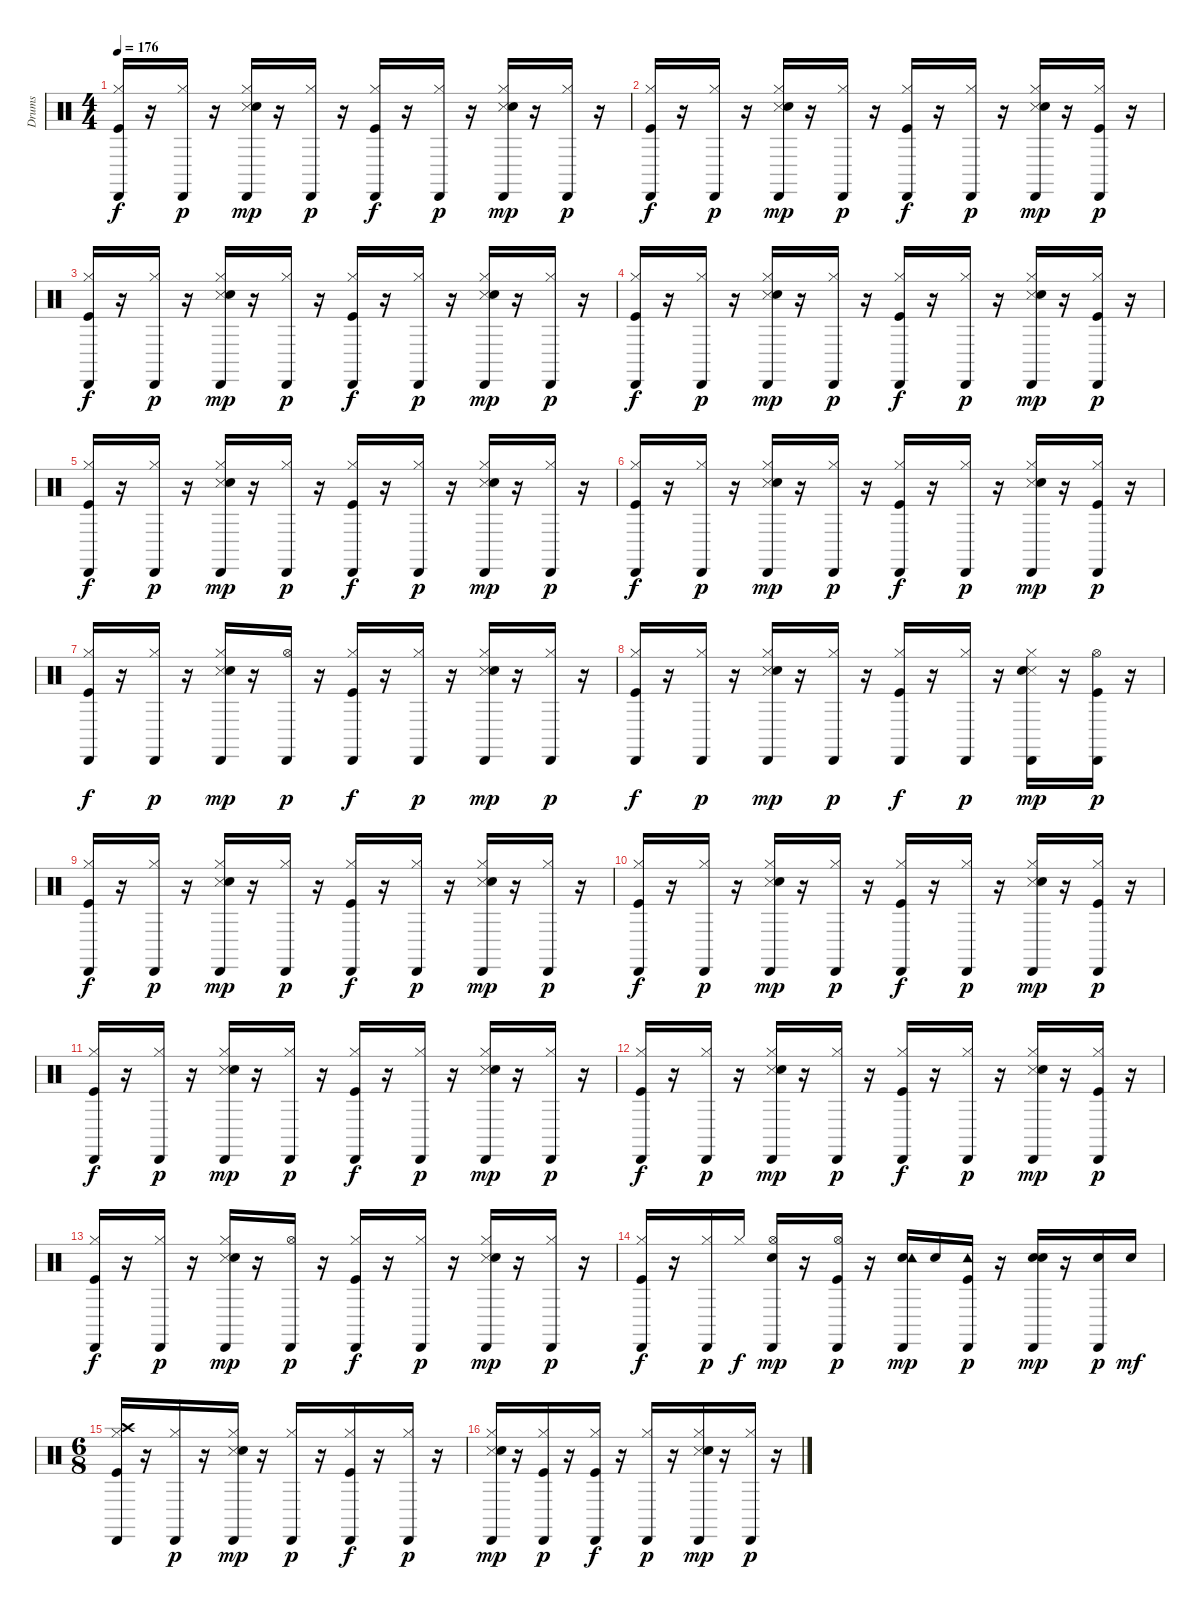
\track ("Drums" "Drums") {instrument percussion}
\staff {score}
\articulation defaults
\ts (4 4)
\tempo 176
\clef neutral
\ks c
("Kick (hit)" "Hi-Hat (closed)" "Cabasa (hit)").16{dy f} r.16 ("Hi-Hat (closed)" "Cabasa (hit)").16{dy p} r.16 ("Hi-Hat (closed)" "Snare (side stick) 3" "Hand Clap (hit)" "Cabasa (hit)").16{dy mp} r.16 ("Hi-Hat (closed)" "Cabasa (hit)").16{dy p} r.16 ("Kick (hit)" "Hi-Hat (closed)" "Cabasa (hit)").16{dy f} r.16 ("Hi-Hat (closed)" "Cabasa (hit)").16{dy p} r.16 ("Hi-Hat (closed)" "Snare (side stick) 3" "Hand Clap (hit)" "Cabasa (hit)").16{dy mp} r.16 ("Hi-Hat (closed)" "Cabasa (hit)").16{dy p} r.16 |
("Kick (hit)" "Hi-Hat (closed)" "Cabasa (hit)").16{dy f} r.16 ("Hi-Hat (closed)" "Cabasa (hit)").16{dy p} r.16 ("Hi-Hat (closed)" "Snare (side stick) 3" "Hand Clap (hit)" "Cabasa (hit)").16{dy mp} r.16 ("Hi-Hat (closed)" "Cabasa (hit)").16{dy p} r.16 ("Kick (hit)" "Hi-Hat (closed)" "Cabasa (hit)").16{dy f} r.16 ("Hi-Hat (closed)" "Cabasa (hit)").16{dy p} r.16 ("Hi-Hat (closed)" "Snare (side stick) 3" "Hand Clap (hit)" "Cabasa (hit)").16{dy mp} r.16 ("Kick (hit)" "Hi-Hat (closed)" "Cabasa (hit)").16{dy p} r.16 |
("Kick (hit)" "Hi-Hat (closed)" "Cabasa (hit)").16{dy f} r.16 ("Hi-Hat (closed)" "Cabasa (hit)").16{dy p} r.16 ("Hi-Hat (closed)" "Snare (side stick) 3" "Hand Clap (hit)" "Cabasa (hit)").16{dy mp} r.16 ("Hi-Hat (closed)" "Cabasa (hit)").16{dy p} r.16 ("Kick (hit)" "Hi-Hat (closed)" "Cabasa (hit)").16{dy f} r.16 ("Hi-Hat (closed)" "Cabasa (hit)").16{dy p} r.16 ("Hi-Hat (closed)" "Snare (side stick) 3" "Hand Clap (hit)" "Cabasa (hit)").16{dy mp} r.16 ("Hi-Hat (closed)" "Cabasa (hit)").16{dy p} r.16 |
("Kick (hit)" "Hi-Hat (closed)" "Cabasa (hit)").16{dy f} r.16 ("Hi-Hat (closed)" "Cabasa (hit)").16{dy p} r.16 ("Hi-Hat (closed)" "Snare (side stick) 3" "Hand Clap (hit)" "Cabasa (hit)").16{dy mp} r.16 ("Hi-Hat (closed)" "Cabasa (hit)").16{dy p} r.16 ("Kick (hit)" "Hi-Hat (closed)" "Cabasa (hit)").16{dy f} r.16 ("Hi-Hat (closed)" "Cabasa (hit)").16{dy p} r.16 ("Hi-Hat (closed)" "Snare (side stick) 3" "Hand Clap (hit)" "Cabasa (hit)").16{dy mp} r.16 ("Kick (hit)" "Hi-Hat (closed)" "Cabasa (hit)").16{dy p} r.16 |
("Kick (hit)" "Hi-Hat (closed)" "Cabasa (hit)").16{dy f} r.16 ("Hi-Hat (closed)" "Cabasa (hit)").16{dy p} r.16 ("Hi-Hat (closed)" "Snare (side stick) 3" "Hand Clap (hit)" "Cabasa (hit)").16{dy mp} r.16 ("Hi-Hat (closed)" "Cabasa (hit)").16{dy p} r.16 ("Kick (hit)" "Hi-Hat (closed)" "Cabasa (hit)").16{dy f} r.16 ("Hi-Hat (closed)" "Cabasa (hit)").16{dy p} r.16 ("Hi-Hat (closed)" "Snare (side stick) 3" "Hand Clap (hit)" "Cabasa (hit)").16{dy mp} r.16 ("Hi-Hat (closed)" "Cabasa (hit)").16{dy p} r.16 |
("Kick (hit)" "Hi-Hat (closed)" "Cabasa (hit)").16{dy f} r.16 ("Hi-Hat (closed)" "Cabasa (hit)").16{dy p} r.16 ("Hi-Hat (closed)" "Snare (side stick) 3" "Hand Clap (hit)" "Cabasa (hit)").16{dy mp} r.16 ("Hi-Hat (closed)" "Cabasa (hit)").16{dy p} r.16 ("Kick (hit)" "Hi-Hat (closed)" "Cabasa (hit)").16{dy f} r.16 ("Hi-Hat (closed)" "Cabasa (hit)").16{dy p} r.16 ("Hi-Hat (closed)" "Snare (side stick) 3" "Hand Clap (hit)" "Cabasa (hit)").16{dy mp} r.16 ("Kick (hit)" "Hi-Hat (closed)" "Cabasa (hit)").16{dy p} r.16 |
("Kick (hit)" "Hi-Hat (closed)" "Cabasa (hit)").16{dy f} r.16 ("Hi-Hat (closed)" "Cabasa (hit)").16{dy p} r.16 ("Hi-Hat (closed)" "Snare (side stick) 3" "Hand Clap (hit)" "Cabasa (hit)").16{dy mp} r.16 ("Hi-Hat (open)" "Cabasa (hit)").16{dy p} r.16 ("Kick (hit)" "Hi-Hat (closed)" "Cabasa (hit)").16{dy f} r.16 ("Hi-Hat (closed)" "Cabasa (hit)").16{dy p} r.16 ("Hi-Hat (closed)" "Snare (side stick) 3" "Hand Clap (hit)" "Cabasa (hit)").16{dy mp} r.16 ("Hi-Hat (closed)" "Cabasa (hit)").16{dy p} r.16 |
("Kick (hit)" "Hi-Hat (closed)" "Cabasa (hit)").16{dy f} r.16 ("Hi-Hat (closed)" "Cabasa (hit)").16{dy p} r.16 ("Hi-Hat (closed)" "Snare (side stick) 3" "Hand Clap (hit)" "Cabasa (hit)").16{dy mp} r.16 ("Hi-Hat (closed)" "Cabasa (hit)").16{dy p} r.16 ("Kick (hit)" "Hi-Hat (closed)" "Cabasa (hit)").16{dy f} r.16 ("Hi-Hat (closed)" "Cabasa (hit)").16{dy p} r.16 ("Hi-Hat (closed)" "Snare (side stick) 3" "Hand Clap (hit)" "Cabasa (hit)").16{dy mp} r.16 ("Kick (hit)" "Hi-Hat (open)" "Cabasa (hit)").16{dy p} r.16 |
("Kick (hit)" "Hi-Hat (closed)" "Cabasa (hit)").16{dy f} r.16 ("Hi-Hat (closed)" "Cabasa (hit)").16{dy p} r.16 ("Hi-Hat (closed)" "Snare (side stick) 3" "Hand Clap (hit)" "Cabasa (hit)").16{dy mp} r.16 ("Hi-Hat (closed)" "Cabasa (hit)").16{dy p} r.16 ("Kick (hit)" "Hi-Hat (closed)" "Cabasa (hit)").16{dy f} r.16 ("Hi-Hat (closed)" "Cabasa (hit)").16{dy p} r.16 ("Hi-Hat (closed)" "Snare (side stick) 3" "Hand Clap (hit)" "Cabasa (hit)").16{dy mp} r.16 ("Hi-Hat (closed)" "Cabasa (hit)").16{dy p} r.16 |
("Kick (hit)" "Hi-Hat (closed)" "Cabasa (hit)").16{dy f} r.16 ("Hi-Hat (closed)" "Cabasa (hit)").16{dy p} r.16 ("Hi-Hat (closed)" "Snare (side stick) 3" "Hand Clap (hit)" "Cabasa (hit)").16{dy mp} r.16 ("Hi-Hat (closed)" "Cabasa (hit)").16{dy p} r.16 ("Kick (hit)" "Hi-Hat (closed)" "Cabasa (hit)").16{dy f} r.16 ("Hi-Hat (closed)" "Cabasa (hit)").16{dy p} r.16 ("Hi-Hat (closed)" "Snare (side stick) 3" "Hand Clap (hit)" "Cabasa (hit)").16{dy mp} r.16 ("Kick (hit)" "Hi-Hat (closed)" "Cabasa (hit)").16{dy p} r.16 |
("Kick (hit)" "Hi-Hat (closed)" "Cabasa (hit)").16{dy f} r.16 ("Hi-Hat (closed)" "Cabasa (hit)").16{dy p} r.16 ("Hi-Hat (closed)" "Snare (side stick) 3" "Hand Clap (hit)" "Cabasa (hit)").16{dy mp} r.16 ("Hi-Hat (closed)" "Cabasa (hit)").16{dy p} r.16 ("Kick (hit)" "Hi-Hat (closed)" "Cabasa (hit)").16{dy f} r.16 ("Hi-Hat (closed)" "Cabasa (hit)").16{dy p} r.16 ("Hi-Hat (closed)" "Snare (side stick) 3" "Hand Clap (hit)" "Cabasa (hit)").16{dy mp} r.16 ("Hi-Hat (closed)" "Cabasa (hit)").16{dy p} r.16 |
("Kick (hit)" "Hi-Hat (closed)" "Cabasa (hit)").16{dy f} r.16 ("Hi-Hat (closed)" "Cabasa (hit)").16{dy p} r.16 ("Hi-Hat (closed)" "Snare (side stick) 3" "Hand Clap (hit)" "Cabasa (hit)").16{dy mp} r.16 ("Hi-Hat (closed)" "Cabasa (hit)").16{dy p} r.16 ("Kick (hit)" "Hi-Hat (closed)" "Cabasa (hit)").16{dy f} r.16 ("Hi-Hat (closed)" "Cabasa (hit)").16{dy p} r.16 ("Hi-Hat (closed)" "Snare (side stick) 3" "Hand Clap (hit)" "Cabasa (hit)").16{dy mp} r.16 ("Kick (hit)" "Hi-Hat (closed)" "Cabasa (hit)").16{dy p} r.16 |
("Kick (hit)" "Hi-Hat (closed)" "Cabasa (hit)").16{dy f} r.16 ("Hi-Hat (closed)" "Cabasa (hit)").16{dy p} r.16 ("Hi-Hat (closed)" "Snare (side stick) 3" "Hand Clap (hit)" "Cabasa (hit)").16{dy mp} r.16 ("Hi-Hat (open)" "Cabasa (hit)").16{dy p} r.16 ("Kick (hit)" "Hi-Hat (closed)" "Cabasa (hit)").16{dy f} r.16 ("Hi-Hat (closed)" "Cabasa (hit)").16{dy p} r.16 ("Hi-Hat (closed)" "Snare (side stick) 3" "Hand Clap (hit)" "Cabasa (hit)").16{dy mp} r.16 ("Hi-Hat (closed)" "Cabasa (hit)").16{dy p} r.16 |
("Kick (hit)" "Hi-Hat (closed)" "Cabasa (hit)").16{dy f} r.16 ("Hi-Hat (closed)" "Cabasa (hit)").16{dy p} "Hi-Hat (closed)".16{dy f} ("Hi-Hat (open)" "Hand Clap (hit)" "Cabasa (hit)").16{dy mp} r.16 ("Kick (hit)" "Hi-Hat (open)" "Cabasa (hit)").16{dy p} r.16 ("Snare (hit) 2" "Tambourine (hit)" "Cabasa (hit)").16{dy mp} "Snare (hit) 2".16 ("Kick (hit)" "Tambourine (hit)" "Cabasa (hit)").16{dy p} r.16 ("Snare (hit) 2" "Hand Clap (hit)" "Cabasa (hit)").16{dy mp} r.16 ("Snare (hit) 2" "Cabasa (hit)").16{dy p} "Snare (hit) 2".16{dy mf} |
\ts (6 8)
("Kick (hit)" "Hi-Hat (closed)" "Crash high (hit)" "Cabasa (hit)").16 r.16 ("Hi-Hat (closed)" "Cabasa (hit)").16{dy p} r.16 ("Hi-Hat (closed)" "Snare (side stick) 3" "Hand Clap (hit)" "Cabasa (hit)").16{dy mp} r.16 ("Hi-Hat (closed)" "Cabasa (hit)").16{dy p} r.16 ("Kick (hit)" "Hi-Hat (closed)" "Cabasa (hit)").16{dy f} r.16 ("Hi-Hat (closed)" "Cabasa (hit)").16{dy p} r.16 |
("Hi-Hat (closed)" "Snare (side stick) 3" "Hand Clap (hit)" "Cabasa (hit)").16{dy mp} r.16 ("Kick (hit)" "Hi-Hat (closed)" "Cabasa (hit)").16{dy p} r.16 ("Kick (hit)" "Hi-Hat (closed)" "Cabasa (hit)").16{dy f} r.16 ("Hi-Hat (closed)" "Cabasa (hit)").16{dy p} r.16 ("Hi-Hat (closed)" "Snare (side stick) 3" "Hand Clap (hit)" "Cabasa (hit)").16{dy mp} r.16 ("Hi-Hat (closed)" "Cabasa (hit)").16{dy p} r.16
